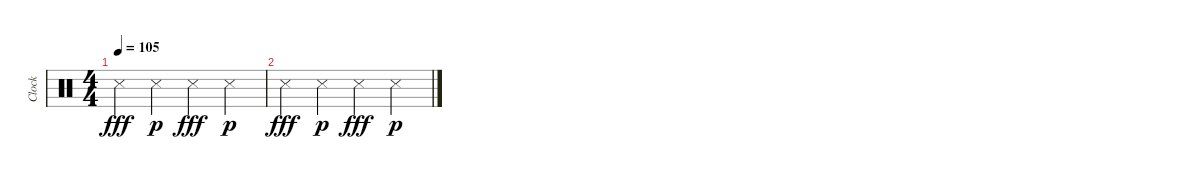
\track ("Clock" "Clock") {instrument percussion}
\staff {score}
\articulation defaults
\ts (4 4)
\tempo 105
\clef neutral
\ks c "Metronome (hit)".4{dy fff} "Metronome (hit)".4{dy p} "Metronome (hit)".4{dy fff} "Metronome (hit)".4{dy p}
|
"Metronome (hit)".4{dy fff} "Metronome (hit)".4{dy p} "Metronome (hit)".4{dy fff} "Metronome (hit)".4{dy p}
